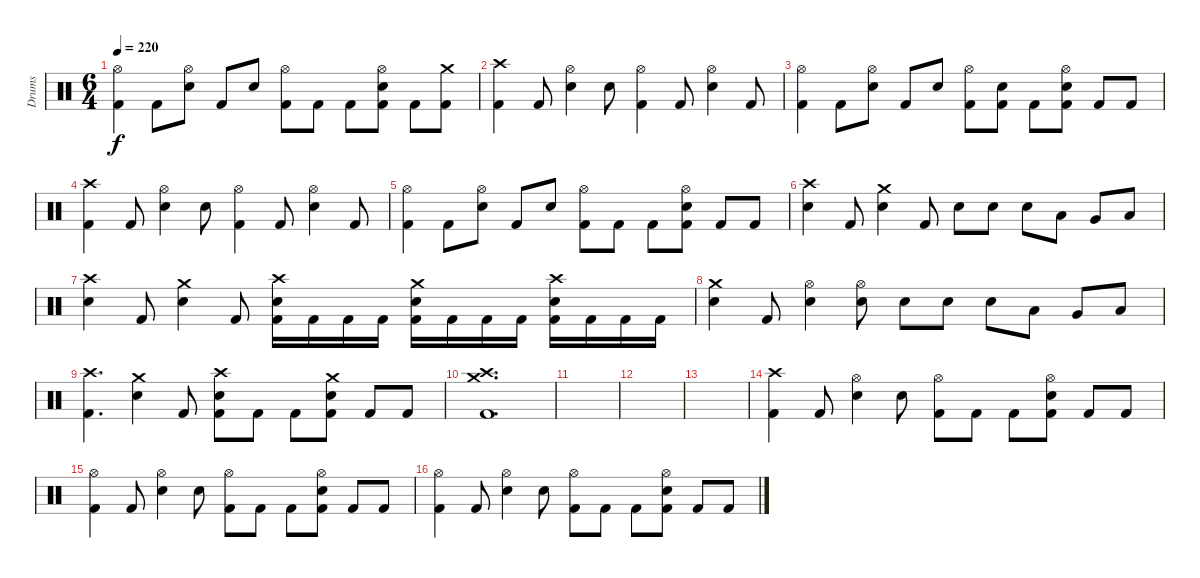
\track ("Drums" "Drums") {instrument percussion}
\staff {score}
\articulation defaults
\ts (6 4)
\tempo 220
\clef neutral
\ks c
("Hi-Hat (open)" "Kick (hit) 2").4{dy f} "Kick (hit) 2".8 ("Hi-Hat (open)" "Electric Snare (hit)").8 "Kick (hit) 2".8 "Electric Snare (hit)".8 ("Hi-Hat (open)" "Kick (hit) 2").8 "Kick (hit) 2".8 "Kick (hit) 2".8 ("Hi-Hat (open)" "Electric Snare (hit)" "Kick (hit) 2").8 "Kick (hit) 2".8 ("Crash medium (hit)" "Kick (hit) 2").8 |
("Crash high (hit)" "Kick (hit) 2").4 "Kick (hit) 2".8 ("Hi-Hat (open)" "Electric Snare (hit)").4 "Electric Snare (hit)".8 ("Hi-Hat (open)" "Kick (hit) 2").4 "Kick (hit) 2".8 ("Hi-Hat (open)" "Electric Snare (hit)").4 "Kick (hit) 2".8 |
("Hi-Hat (open)" "Kick (hit) 2").4 "Kick (hit) 2".8 ("Hi-Hat (open)" "Electric Snare (hit)").8 "Kick (hit) 2".8 "Electric Snare (hit)".8 ("Hi-Hat (open)" "Kick (hit) 2").8 ("Electric Snare (hit)" "Kick (hit) 2").8 "Kick (hit) 2".8 ("Hi-Hat (open)" "Electric Snare (hit)" "Kick (hit) 2").8 "Kick (hit) 2".8 "Kick (hit) 2".8 |
("Crash high (hit)" "Kick (hit) 2").4 "Kick (hit) 2".8 ("Hi-Hat (open)" "Electric Snare (hit)").4 "Electric Snare (hit)".8 ("Hi-Hat (open)" "Kick (hit) 2").4 "Kick (hit) 2".8 ("Hi-Hat (open)" "Electric Snare (hit)").4 "Kick (hit) 2".8 |
("Hi-Hat (open)" "Kick (hit) 2").4 "Kick (hit) 2".8 ("Hi-Hat (open)" "Electric Snare (hit)").8 "Kick (hit) 2".8 "Electric Snare (hit)".8 ("Hi-Hat (open)" "Kick (hit) 2").8 "Kick (hit) 2".8 "Kick (hit) 2".8 ("Hi-Hat (open)" "Electric Snare (hit)" "Kick (hit) 2").8 "Kick (hit) 2".8 "Kick (hit) 2".8 |
("Crash high (hit)" "Electric Snare (hit)").4 "Kick (hit) 2".8 ("Crash medium (hit)" "Electric Snare (hit)").4 "Kick (hit) 2".8 "Electric Snare (hit)".8 "Electric Snare (hit)".8 "Electric Snare (hit)".8 "Low Tom (hit)".8 "Very Low Tom (hit)".8 "Low Floor Tom (hit)".8 |
("Crash high (hit)" "Electric Snare (hit)").4 "Kick (hit) 2".8 ("Crash medium (hit)" "Electric Snare (hit)").4 "Kick (hit) 2".8 ("Crash high (hit)" "Electric Snare (hit)" "Kick (hit) 2").16 "Kick (hit) 2".16 "Kick (hit) 2".16 "Kick (hit) 2".16 ("Crash medium (hit)" "Electric Snare (hit)" "Kick (hit) 2").16 "Kick (hit) 2".16 "Kick (hit) 2".16 "Kick (hit) 2".16 ("Crash high (hit)" "Electric Snare (hit)" "Kick (hit) 2").16 "Kick (hit) 2".16 "Kick (hit) 2".16 "Kick (hit) 2".16 |
("Crash medium (hit)" "Electric Snare (hit)").4 "Kick (hit) 2".8 ("Hi-Hat (open)" "Electric Snare (hit)").4 ("Hi-Hat (open)" "Electric Snare (hit)").8 "Electric Snare (hit)".8 "Electric Snare (hit)".8 "Electric Snare (hit)".8 "Low Tom (hit)".8 "Very Low Tom (hit)".8 "Low Floor Tom (hit)".8 |
("Crash high (hit)" "Kick (hit) 2").4{d} ("Crash medium (hit)" "Electric Snare (hit)").4 "Kick (hit) 2".8 ("Crash high (hit)" "Electric Snare (hit)" "Kick (hit) 2").8 "Kick (hit) 2".8 "Kick (hit) 2".8 ("Crash medium (hit)" "Electric Snare (hit)" "Kick (hit) 2").8 "Kick (hit) 2".8 "Kick (hit) 2".8 |
("Crash medium (hit)" "Crash high (hit)" "Kick (hit) 2").1{d} |
|
|
|
("Crash high (hit)" "Kick (hit) 2").4 "Kick (hit) 2".8 ("Hi-Hat (open)" "Electric Snare (hit)").4 "Electric Snare (hit)".8 ("Hi-Hat (open)" "Kick (hit) 2").8 "Kick (hit) 2".8 "Kick (hit) 2".8 ("Hi-Hat (open)" "Electric Snare (hit)" "Kick (hit) 2").8 "Kick (hit) 2".8 "Kick (hit) 2".8 |
("Hi-Hat (open)" "Kick (hit) 2").4 "Kick (hit) 2".8 ("Hi-Hat (open)" "Electric Snare (hit)").4 "Electric Snare (hit)".8 ("Hi-Hat (open)" "Kick (hit) 2").8 "Kick (hit) 2".8 "Kick (hit) 2".8 ("Hi-Hat (open)" "Electric Snare (hit)" "Kick (hit) 2").8 "Kick (hit) 2".8 "Kick (hit) 2".8 |
("Hi-Hat (open)" "Kick (hit) 2").4 "Kick (hit) 2".8 ("Hi-Hat (open)" "Electric Snare (hit)").4 "Electric Snare (hit)".8 ("Hi-Hat (open)" "Kick (hit) 2").8 "Kick (hit) 2".8 "Kick (hit) 2".8 ("Hi-Hat (open)" "Electric Snare (hit)" "Kick (hit) 2").8 "Kick (hit) 2".8 "Kick (hit) 2".8
